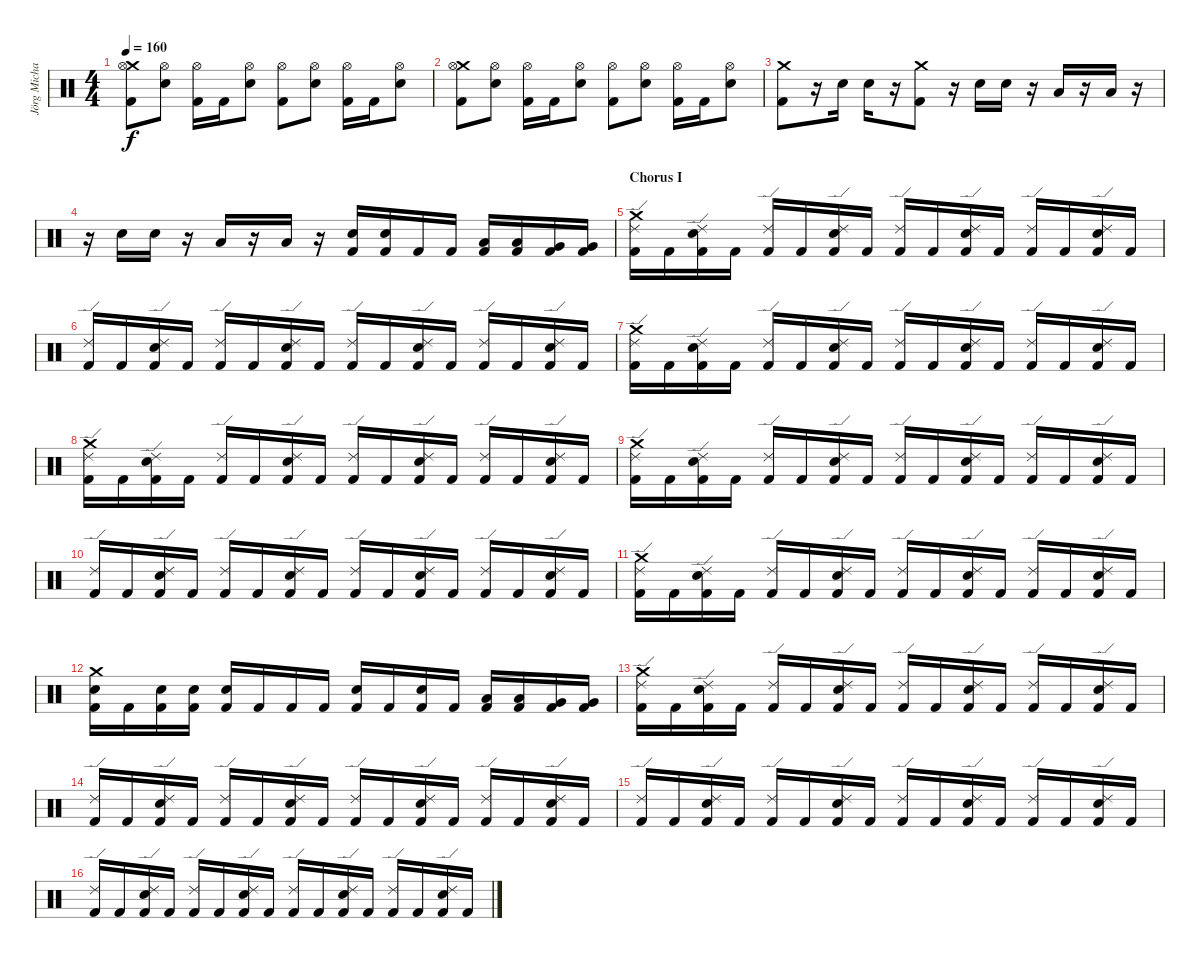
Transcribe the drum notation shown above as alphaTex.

\track ("Jörg Michael" "Jörg Micha") {instrument percussion}
\staff {score}
\articulation defaults
\ts (4 4)
\tempo 160
\clef neutral
\ks c
("Crash medium (hit)" "Hi-Hat (open)" "Kick (hit) 2").8{dy f} ("Hi-Hat (open)" "Electric Snare (hit)").8 ("Hi-Hat (open)" "Kick (hit) 2").16 "Kick (hit) 2".16 ("Hi-Hat (open)" "Electric Snare (hit)").8 ("Hi-Hat (open)" "Kick (hit) 2").8 ("Hi-Hat (open)" "Electric Snare (hit)").8 ("Hi-Hat (open)" "Kick (hit) 2").16 "Kick (hit) 2".16 ("Hi-Hat (open)" "Electric Snare (hit)").8 |
("Crash medium (hit)" "Hi-Hat (open)" "Kick (hit) 2").8 ("Hi-Hat (open)" "Electric Snare (hit)").8 ("Hi-Hat (open)" "Kick (hit) 2").16 "Kick (hit) 2".16 ("Hi-Hat (open)" "Electric Snare (hit)").8 ("Hi-Hat (open)" "Kick (hit) 2").8 ("Hi-Hat (open)" "Electric Snare (hit)").8 ("Hi-Hat (open)" "Kick (hit) 2").16 "Kick (hit) 2".16 ("Hi-Hat (open)" "Electric Snare (hit)").8 |
("Crash medium (hit)" "Kick (hit) 2").8 r.16 "Electric Snare (hit)".16 "Electric Snare (hit)".16 r.16 ("Crash medium (hit)" "Kick (hit) 2").8 r.16 "Electric Snare (hit)".16 "Electric Snare (hit)".16 r.16 "Low Tom (hit)".16 r.16 "Low Tom (hit)".16 r.16 |
r.16 "Electric Snare (hit)".16 "Electric Snare (hit)".16 r.16 "Low Tom (hit)".16 r.16 "Low Tom (hit)".16 r.16 ("Electric Snare (hit)" "Kick (hit) 2").16 ("Electric Snare (hit)" "Kick (hit) 2").16 "Kick (hit) 2".16 "Kick (hit) 2".16 ("Low Tom (hit)" "Kick (hit) 2").16 ("Low Tom (hit)" "Kick (hit) 2").16 ("Very Low Tom (hit)" "Kick (hit) 2").16 ("Very Low Tom (hit)" "Kick (hit) 2").16 |
\section ("" "Chorus I")
("Crash medium (hit)" "Ride (edge) 2" "Kick (hit) 2").16 "Kick (hit) 2".16 ("Electric Snare (hit)" "Ride (edge) 2" "Kick (hit) 2").16 "Kick (hit) 2".16 ("Ride (edge) 2" "Kick (hit) 2").16 "Kick (hit) 2".16 ("Electric Snare (hit)" "Ride (edge) 2" "Kick (hit) 2").16 "Kick (hit) 2".16 ("Ride (edge) 2" "Kick (hit) 2").16 "Kick (hit) 2".16 ("Electric Snare (hit)" "Ride (edge) 2" "Kick (hit) 2").16 "Kick (hit) 2".16 ("Ride (edge) 2" "Kick (hit) 2").16 "Kick (hit) 2".16 ("Electric Snare (hit)" "Ride (edge) 2" "Kick (hit) 2").16 "Kick (hit) 2".16 |
("Ride (edge) 2" "Kick (hit) 2").16 "Kick (hit) 2".16 ("Electric Snare (hit)" "Ride (edge) 2" "Kick (hit) 2").16 "Kick (hit) 2".16 ("Ride (edge) 2" "Kick (hit) 2").16 "Kick (hit) 2".16 ("Electric Snare (hit)" "Ride (edge) 2" "Kick (hit) 2").16 "Kick (hit) 2".16 ("Ride (edge) 2" "Kick (hit) 2").16 "Kick (hit) 2".16 ("Electric Snare (hit)" "Ride (edge) 2" "Kick (hit) 2").16 "Kick (hit) 2".16 ("Ride (edge) 2" "Kick (hit) 2").16 "Kick (hit) 2".16 ("Electric Snare (hit)" "Ride (edge) 2" "Kick (hit) 2").16 "Kick (hit) 2".16 |
("Crash medium (hit)" "Ride (edge) 2" "Kick (hit) 2").16 "Kick (hit) 2".16 ("Electric Snare (hit)" "Ride (edge) 2" "Kick (hit) 2").16 "Kick (hit) 2".16 ("Ride (edge) 2" "Kick (hit) 2").16 "Kick (hit) 2".16 ("Electric Snare (hit)" "Ride (edge) 2" "Kick (hit) 2").16 "Kick (hit) 2".16 ("Ride (edge) 2" "Kick (hit) 2").16 "Kick (hit) 2".16 ("Electric Snare (hit)" "Ride (edge) 2" "Kick (hit) 2").16 "Kick (hit) 2".16 ("Ride (edge) 2" "Kick (hit) 2").16 "Kick (hit) 2".16 ("Electric Snare (hit)" "Ride (edge) 2" "Kick (hit) 2").16 "Kick (hit) 2".16 |
("Crash medium (hit)" "Ride (edge) 2" "Kick (hit) 2").16 "Kick (hit) 2".16 ("Electric Snare (hit)" "Ride (edge) 2" "Kick (hit) 2").16 "Kick (hit) 2".16 ("Ride (edge) 2" "Kick (hit) 2").16 "Kick (hit) 2".16 ("Electric Snare (hit)" "Ride (edge) 2" "Kick (hit) 2").16 "Kick (hit) 2".16 ("Ride (edge) 2" "Kick (hit) 2").16 "Kick (hit) 2".16 ("Electric Snare (hit)" "Ride (edge) 2" "Kick (hit) 2").16 "Kick (hit) 2".16 ("Ride (edge) 2" "Kick (hit) 2").16 "Kick (hit) 2".16 ("Electric Snare (hit)" "Ride (edge) 2" "Kick (hit) 2").16 "Kick (hit) 2".16 |
("Crash medium (hit)" "Ride (edge) 2" "Kick (hit) 2").16 "Kick (hit) 2".16 ("Electric Snare (hit)" "Ride (edge) 2" "Kick (hit) 2").16 "Kick (hit) 2".16 ("Ride (edge) 2" "Kick (hit) 2").16 "Kick (hit) 2".16 ("Electric Snare (hit)" "Ride (edge) 2" "Kick (hit) 2").16 "Kick (hit) 2".16 ("Ride (edge) 2" "Kick (hit) 2").16 "Kick (hit) 2".16 ("Electric Snare (hit)" "Ride (edge) 2" "Kick (hit) 2").16 "Kick (hit) 2".16 ("Ride (edge) 2" "Kick (hit) 2").16 "Kick (hit) 2".16 ("Electric Snare (hit)" "Ride (edge) 2" "Kick (hit) 2").16 "Kick (hit) 2".16 |
("Ride (edge) 2" "Kick (hit) 2").16 "Kick (hit) 2".16 ("Electric Snare (hit)" "Ride (edge) 2" "Kick (hit) 2").16 "Kick (hit) 2".16 ("Ride (edge) 2" "Kick (hit) 2").16 "Kick (hit) 2".16 ("Electric Snare (hit)" "Ride (edge) 2" "Kick (hit) 2").16 "Kick (hit) 2".16 ("Ride (edge) 2" "Kick (hit) 2").16 "Kick (hit) 2".16 ("Electric Snare (hit)" "Ride (edge) 2" "Kick (hit) 2").16 "Kick (hit) 2".16 ("Ride (edge) 2" "Kick (hit) 2").16 "Kick (hit) 2".16 ("Electric Snare (hit)" "Ride (edge) 2" "Kick (hit) 2").16 "Kick (hit) 2".16 |
("Crash medium (hit)" "Ride (edge) 2" "Kick (hit) 2").16 "Kick (hit) 2".16 ("Electric Snare (hit)" "Ride (edge) 2" "Kick (hit) 2").16 "Kick (hit) 2".16 ("Ride (edge) 2" "Kick (hit) 2").16 "Kick (hit) 2".16 ("Electric Snare (hit)" "Ride (edge) 2" "Kick (hit) 2").16 "Kick (hit) 2".16 ("Ride (edge) 2" "Kick (hit) 2").16 "Kick (hit) 2".16 ("Electric Snare (hit)" "Ride (edge) 2" "Kick (hit) 2").16 "Kick (hit) 2".16 ("Ride (edge) 2" "Kick (hit) 2").16 "Kick (hit) 2".16 ("Electric Snare (hit)" "Ride (edge) 2" "Kick (hit) 2").16 "Kick (hit) 2".16 |
("Crash medium (hit)" "Electric Snare (hit)" "Kick (hit) 2").16 "Kick (hit) 2".16 ("Electric Snare (hit)" "Kick (hit) 2").16 ("Electric Snare (hit)" "Kick (hit) 2").16 ("Electric Snare (hit)" "Kick (hit) 2").16 "Kick (hit) 2".16 "Kick (hit) 2".16 "Kick (hit) 2".16 ("Electric Snare (hit)" "Kick (hit) 2").16 "Kick (hit) 2".16 ("Electric Snare (hit)" "Kick (hit) 2").16 "Kick (hit) 2".16 ("Low Tom (hit)" "Kick (hit) 2").16 ("Low Tom (hit)" "Kick (hit) 2").16 ("Very Low Tom (hit)" "Kick (hit) 2").16 ("Very Low Tom (hit)" "Kick (hit) 2").16 |
("Crash medium (hit)" "Ride (edge) 2" "Kick (hit) 2").16 "Kick (hit) 2".16 ("Electric Snare (hit)" "Ride (edge) 2" "Kick (hit) 2").16 "Kick (hit) 2".16 ("Ride (edge) 2" "Kick (hit) 2").16 "Kick (hit) 2".16 ("Electric Snare (hit)" "Ride (edge) 2" "Kick (hit) 2").16 "Kick (hit) 2".16 ("Ride (edge) 2" "Kick (hit) 2").16 "Kick (hit) 2".16 ("Electric Snare (hit)" "Ride (edge) 2" "Kick (hit) 2").16 "Kick (hit) 2".16 ("Ride (edge) 2" "Kick (hit) 2").16 "Kick (hit) 2".16 ("Electric Snare (hit)" "Ride (edge) 2" "Kick (hit) 2").16 "Kick (hit) 2".16 |
("Ride (edge) 2" "Kick (hit) 2").16 "Kick (hit) 2".16 ("Electric Snare (hit)" "Ride (edge) 2" "Kick (hit) 2").16 "Kick (hit) 2".16 ("Ride (edge) 2" "Kick (hit) 2").16 "Kick (hit) 2".16 ("Electric Snare (hit)" "Ride (edge) 2" "Kick (hit) 2").16 "Kick (hit) 2".16 ("Ride (edge) 2" "Kick (hit) 2").16 "Kick (hit) 2".16 ("Electric Snare (hit)" "Ride (edge) 2" "Kick (hit) 2").16 "Kick (hit) 2".16 ("Ride (edge) 2" "Kick (hit) 2").16 "Kick (hit) 2".16 ("Electric Snare (hit)" "Ride (edge) 2" "Kick (hit) 2").16 "Kick (hit) 2".16 |
("Ride (edge) 2" "Kick (hit) 2").16 "Kick (hit) 2".16 ("Electric Snare (hit)" "Ride (edge) 2" "Kick (hit) 2").16 "Kick (hit) 2".16 ("Ride (edge) 2" "Kick (hit) 2").16 "Kick (hit) 2".16 ("Electric Snare (hit)" "Ride (edge) 2" "Kick (hit) 2").16 "Kick (hit) 2".16 ("Ride (edge) 2" "Kick (hit) 2").16 "Kick (hit) 2".16 ("Electric Snare (hit)" "Ride (edge) 2" "Kick (hit) 2").16 "Kick (hit) 2".16 ("Ride (edge) 2" "Kick (hit) 2").16 "Kick (hit) 2".16 ("Electric Snare (hit)" "Ride (edge) 2" "Kick (hit) 2").16 "Kick (hit) 2".16 |
("Ride (edge) 2" "Kick (hit) 2").16 "Kick (hit) 2".16 ("Electric Snare (hit)" "Ride (edge) 2" "Kick (hit) 2").16 "Kick (hit) 2".16 ("Ride (edge) 2" "Kick (hit) 2").16 "Kick (hit) 2".16 ("Electric Snare (hit)" "Ride (edge) 2" "Kick (hit) 2").16 "Kick (hit) 2".16 ("Ride (edge) 2" "Kick (hit) 2").16 "Kick (hit) 2".16 ("Electric Snare (hit)" "Ride (edge) 2" "Kick (hit) 2").16 "Kick (hit) 2".16 ("Ride (edge) 2" "Kick (hit) 2").16 "Kick (hit) 2".16 ("Electric Snare (hit)" "Ride (edge) 2" "Kick (hit) 2").16 "Kick (hit) 2".16
